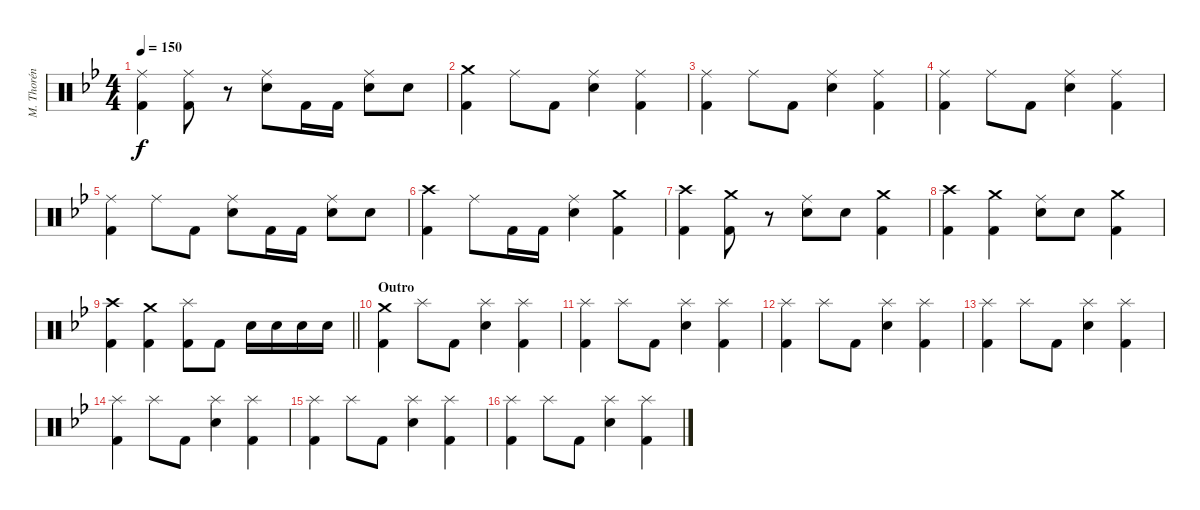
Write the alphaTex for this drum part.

\track ("M. Thorén (Drums)" "M. Thorén ") {instrument percussion}
\staff {score}
\articulation defaults
\ts (4 4)
\tempo 150
\clef neutral
\ks gminor
("Ride (middle)" "Kick (hit) 2").4{dy f} ("Ride (middle)" "Kick (hit) 2").8 r.8 ("Ride (middle)" "Electric Snare (hit)").8 "Kick (hit) 2".16 "Kick (hit) 2".16 ("Ride (middle)" "Electric Snare (hit)").8 "Electric Snare (hit)".8 |
("Crash medium (hit)" "Kick (hit) 2").4 "Ride (middle)".8 "Kick (hit) 2".8 ("Ride (middle)" "Electric Snare (hit)").4 ("Ride (middle)" "Kick (hit) 2").4 |
("Ride (middle)" "Kick (hit) 2").4 "Ride (middle)".8 "Kick (hit) 2".8 ("Ride (middle)" "Electric Snare (hit)").4 ("Ride (middle)" "Kick (hit) 2").4 |
("Ride (middle)" "Kick (hit) 2").4 "Ride (middle)".8 "Kick (hit) 2".8 ("Ride (middle)" "Electric Snare (hit)").4 ("Ride (middle)" "Kick (hit) 2").4 |
("Ride (middle)" "Kick (hit) 2").4 "Ride (middle)".8 "Kick (hit) 2".8 ("Ride (middle)" "Electric Snare (hit)").8 "Kick (hit) 2".16 "Kick (hit) 2".16 ("Ride (middle)" "Electric Snare (hit)").8 "Electric Snare (hit)".8 |
("Crash high (hit)" "Kick (hit) 2").4 "Ride (middle)".8 "Kick (hit) 2".16 "Kick (hit) 2".16 ("Ride (middle)" "Electric Snare (hit)").4 ("Crash medium (hit)" "Kick (hit) 2").4 |
("Crash high (hit)" "Kick (hit) 2").4 ("Crash medium (hit)" "Kick (hit) 2").8 r.8 ("Ride (middle)" "Electric Snare (hit)").8 "Electric Snare (hit)".8 ("Crash medium (hit)" "Kick (hit) 2").4 |
("Crash high (hit)" "Kick (hit) 2").4 ("Crash medium (hit)" "Kick (hit) 2").4 ("Ride (middle)" "Electric Snare (hit)").8 "Electric Snare (hit)".8 ("Crash medium (hit)" "Kick (hit) 2").4 |
\barLineRight lightlight
("Crash high (hit)" "Kick (hit) 2").4 ("Crash medium (hit)" "Kick (hit) 2").4 ("Splash (hit)" "Kick (hit) 2").8 "Kick (hit) 2".8 "Electric Snare (hit)".16 "Electric Snare (hit)".16 "Electric Snare (hit)".16 "Electric Snare (hit)".16 |
\section ("" "Outro")
("Crash medium (hit)" "Kick (hit) 2").4 "Splash (hit)".8 "Kick (hit) 2".8 ("Splash (hit)" "Electric Snare (hit)").4 ("Splash (hit)" "Kick (hit) 2").4 |
("Splash (hit)" "Kick (hit) 2").4 "Splash (hit)".8 "Kick (hit) 2".8 ("Splash (hit)" "Electric Snare (hit)").4 ("Splash (hit)" "Kick (hit) 2").4 |
("Splash (hit)" "Kick (hit) 2").4 "Splash (hit)".8 "Kick (hit) 2".8 ("Splash (hit)" "Electric Snare (hit)").4 ("Splash (hit)" "Kick (hit) 2").4 |
("Splash (hit)" "Kick (hit) 2").4 "Splash (hit)".8 "Kick (hit) 2".8 ("Splash (hit)" "Electric Snare (hit)").4 ("Splash (hit)" "Kick (hit) 2").4 |
("Splash (hit)" "Kick (hit) 2").4 "Splash (hit)".8 "Kick (hit) 2".8 ("Splash (hit)" "Electric Snare (hit)").4 ("Splash (hit)" "Kick (hit) 2").4 |
("Splash (hit)" "Kick (hit) 2").4 "Splash (hit)".8 "Kick (hit) 2".8 ("Splash (hit)" "Electric Snare (hit)").4 ("Splash (hit)" "Kick (hit) 2").4 |
("Splash (hit)" "Kick (hit) 2").4 "Splash (hit)".8 "Kick (hit) 2".8 ("Splash (hit)" "Electric Snare (hit)").4 ("Splash (hit)" "Kick (hit) 2").4
